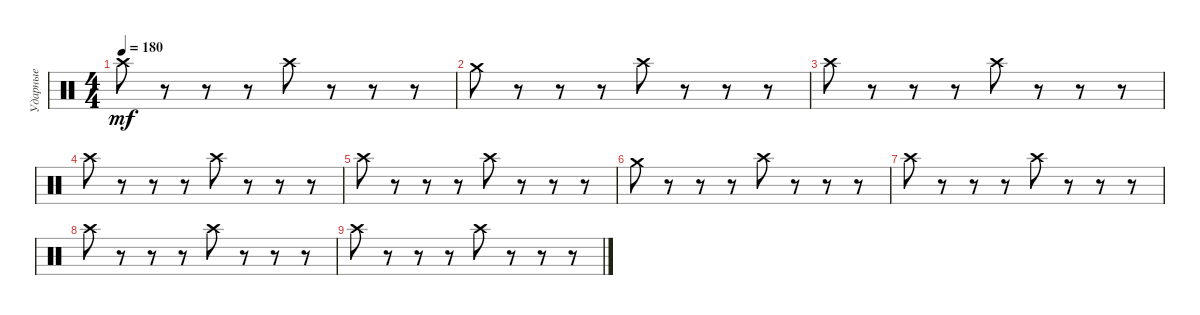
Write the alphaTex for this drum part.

\track ("Ударные" "Ударные") {instrument percussion}
\staff {score}
\articulation defaults
\ts (4 4)
\tempo 180
\clef neutral
\ks c "Crash high (hit)".8{dy mf}
r.8 r.8 r.8 "Crash high (hit)".8 r.8 r.8 r.8 |
"Crash medium (hit)".8 r.8 r.8 r.8 "Crash high (hit)".8 r.8 r.8 r.8 |
"Crash high (hit)".8 r.8 r.8 r.8 "Crash high (hit)".8 r.8 r.8 r.8 |
"Crash high (hit)".8 r.8 r.8 r.8 "Crash high (hit)".8 r.8 r.8 r.8 |
"Crash high (hit)".8 r.8 r.8 r.8 "Crash high (hit)".8 r.8 r.8 r.8 |
"Crash medium (hit)".8 r.8 r.8 r.8 "Crash high (hit)".8 r.8 r.8 r.8 |
"Crash high (hit)".8 r.8 r.8 r.8 "Crash high (hit)".8 r.8 r.8 r.8 |
"Crash high (hit)".8 r.8 r.8 r.8 "Crash high (hit)".8 r.8 r.8 r.8 |
"Crash high (hit)".8 r.8 r.8 r.8 "Crash high (hit)".8 r.8 r.8 r.8
